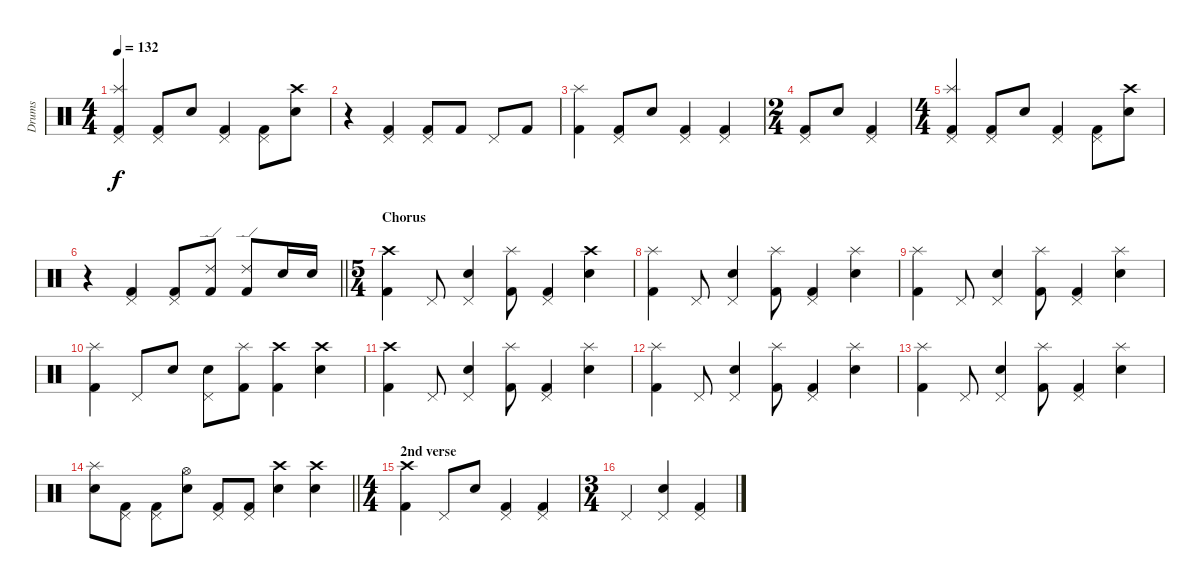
\track ("Drums" "Drums") {instrument percussion}
\staff {score}
\articulation defaults
\ts (4 4)
\tempo 132
\clef neutral
\ks c
("Pedal Hi-Hat (hit)" "Splash (hit)" "Kick (hit) 2").4{dy f} ("Pedal Hi-Hat (hit)" "Kick (hit) 2").8 "Snare (hit) 2".8 ("Pedal Hi-Hat (hit)" "Kick (hit) 2").4 ("Pedal Hi-Hat (hit)" "Kick (hit) 2").8 ("Crash high (hit)" "Snare (hit) 2").8 |
r.4 ("Pedal Hi-Hat (hit)" "Kick (hit) 2").4 ("Pedal Hi-Hat (hit)" "Kick (hit) 2").8 "Kick (hit) 2".8 "Pedal Hi-Hat (hit)".8 "Kick (hit) 2".8 |
("Splash (hit)" "Kick (hit) 2").4 ("Pedal Hi-Hat (hit)" "Kick (hit) 2").8 "Snare (hit) 2".8 ("Pedal Hi-Hat (hit)" "Kick (hit) 2").4 ("Pedal Hi-Hat (hit)" "Kick (hit) 2").4 |
\ts (2 4)
("Pedal Hi-Hat (hit)" "Kick (hit) 2").8 "Snare (hit) 2".8 ("Pedal Hi-Hat (hit)" "Kick (hit) 2").4 |
\ts (4 4)
("Pedal Hi-Hat (hit)" "Splash (hit)" "Kick (hit) 2").4 ("Pedal Hi-Hat (hit)" "Kick (hit) 2").8 "Snare (hit) 2".8 ("Pedal Hi-Hat (hit)" "Kick (hit) 2").4 ("Pedal Hi-Hat (hit)" "Kick (hit) 2").8 ("Crash high (hit)" "Snare (hit) 2").8 |
\barLineRight lightlight
r.4 ("Pedal Hi-Hat (hit)" "Kick (hit) 2").4 ("Pedal Hi-Hat (hit)" "Kick (hit) 2").8 ("Ride (edge) 2" "Kick (hit) 2").8 ("Ride (edge) 2" "Kick (hit) 2").8 "Snare (hit) 2".16 "Snare (hit) 2".16 |
\ts (5 4)
\section ("" "Chorus")
("Crash high (hit)" "Kick (hit) 2").4 "Pedal Hi-Hat (hit)".8 ("Pedal Hi-Hat (hit)" "Snare (hit) 2").4 ("Splash (hit)" "Kick (hit) 2").8 ("Pedal Hi-Hat (hit)" "Kick (hit) 2").4 ("Crash high (hit)" "Snare (hit) 2").4 |
("Splash (hit)" "Kick (hit) 2").4 "Pedal Hi-Hat (hit)".8 ("Pedal Hi-Hat (hit)" "Snare (hit) 2").4 ("Splash (hit)" "Kick (hit) 2").8 ("Pedal Hi-Hat (hit)" "Kick (hit) 2").4 ("Splash (hit)" "Snare (hit) 2").4 |
("Splash (hit)" "Kick (hit) 2").4 "Pedal Hi-Hat (hit)".8 ("Pedal Hi-Hat (hit)" "Snare (hit) 2").4 ("Splash (hit)" "Kick (hit) 2").8 ("Pedal Hi-Hat (hit)" "Kick (hit) 2").4 ("Splash (hit)" "Snare (hit) 2").4 |
("Splash (hit)" "Kick (hit) 2").4 "Pedal Hi-Hat (hit)".8 "Snare (hit) 2".8 ("Pedal Hi-Hat (hit)" "Snare (hit) 2").8 ("Splash (hit)" "Kick (hit) 2").8 ("Crash high (hit)" "Kick (hit) 2").4 ("Crash high (hit)" "Snare (hit) 2").4 |
("Crash high (hit)" "Kick (hit) 2").4 "Pedal Hi-Hat (hit)".8 ("Pedal Hi-Hat (hit)" "Snare (hit) 2").4 ("Splash (hit)" "Kick (hit) 2").8 ("Pedal Hi-Hat (hit)" "Kick (hit) 2").4 ("Splash (hit)" "Snare (hit) 2").4 |
("Splash (hit)" "Kick (hit) 2").4 "Pedal Hi-Hat (hit)".8 ("Pedal Hi-Hat (hit)" "Snare (hit) 2").4 ("Splash (hit)" "Kick (hit) 2").8 ("Pedal Hi-Hat (hit)" "Kick (hit) 2").4 ("Splash (hit)" "Snare (hit) 2").4 |
("Splash (hit)" "Kick (hit) 2").4 "Pedal Hi-Hat (hit)".8 ("Pedal Hi-Hat (hit)" "Snare (hit) 2").4 ("Splash (hit)" "Kick (hit) 2").8 ("Pedal Hi-Hat (hit)" "Kick (hit) 2").4 ("Splash (hit)" "Snare (hit) 2").4 |
\barLineRight lightlight
("Splash (hit)" "Snare (hit) 2").8 ("Pedal Hi-Hat (hit)" "Kick (hit) 2").8 ("Pedal Hi-Hat (hit)" "Kick (hit) 2").8 ("Hi-Hat (open)" "Snare (hit) 2").8 ("Pedal Hi-Hat (hit)" "Kick (hit) 2").8 ("Pedal Hi-Hat (hit)" "Kick (hit) 2").8 ("Crash high (hit)" "Snare (hit) 2").4 ("Crash high (hit)" "Snare (hit) 2").4 |
\ts (4 4)
\section ("" "2nd verse")
("Crash high (hit)" "Kick (hit) 2").4 "Pedal Hi-Hat (hit)".8 "Snare (hit) 2".8 ("Pedal Hi-Hat (hit)" "Kick (hit) 2").4 ("Pedal Hi-Hat (hit)" "Kick (hit) 2").4 |
\ts (3 4)
"Pedal Hi-Hat (hit)".4 ("Pedal Hi-Hat (hit)" "Snare (hit) 2").4 ("Pedal Hi-Hat (hit)" "Kick (hit) 2").4
